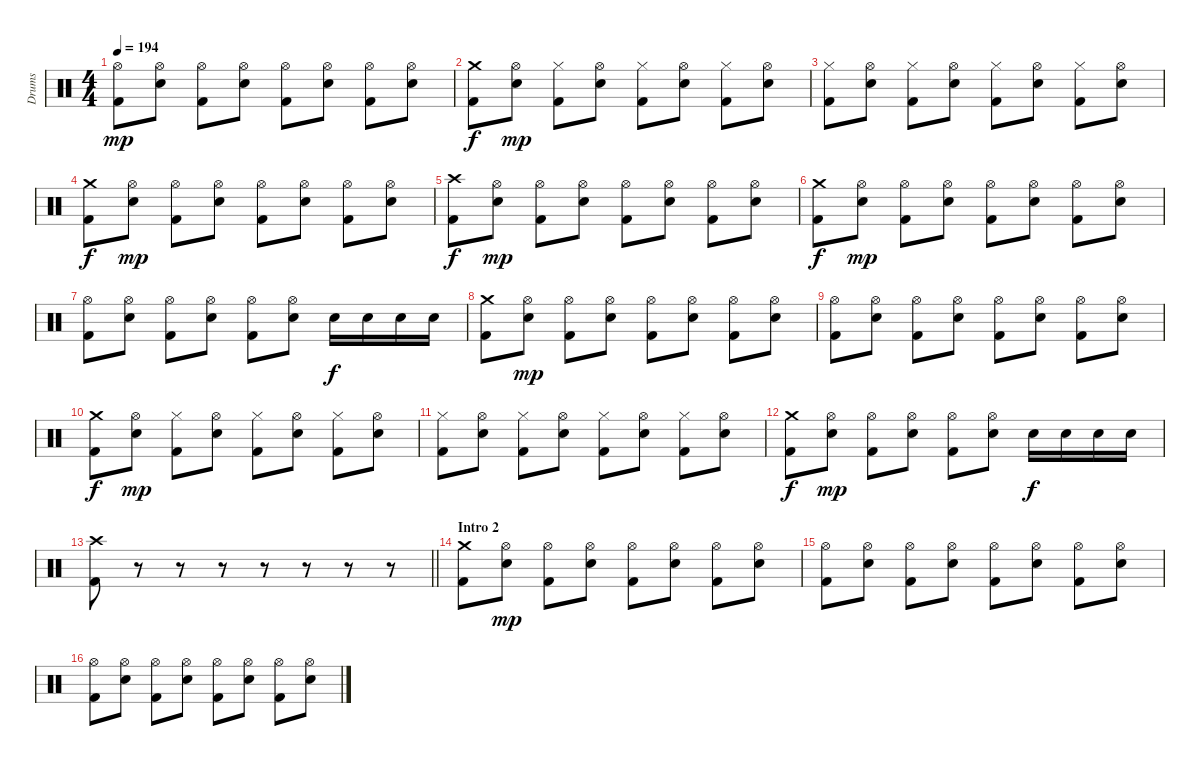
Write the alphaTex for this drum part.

\track ("Drums" "Drums") {instrument percussion}
\staff {score}
\articulation defaults
\ts (4 4)
\tempo 194
\clef neutral
\ks c
("Hi-Hat (open)" "Kick (hit) 2").8{dy mp} ("Hi-Hat (open)" "Snare (hit) 2").8 ("Hi-Hat (open)" "Kick (hit) 2").8 ("Hi-Hat (open)" "Snare (hit) 2").8 ("Hi-Hat (open)" "Kick (hit) 2").8 ("Hi-Hat (open)" "Snare (hit) 2").8 ("Hi-Hat (open)" "Kick (hit) 2").8 ("Hi-Hat (open)" "Snare (hit) 2").8 |
("Crash medium (hit)" "Kick (hit) 2").8{dy f} ("Hi-Hat (open)" "Snare (hit) 2").8{dy mp} ("Hi-Hat (closed)" "Kick (hit) 2").8 ("Hi-Hat (open)" "Snare (hit) 2").8 ("Hi-Hat (closed)" "Kick (hit) 2").8 ("Hi-Hat (open)" "Snare (hit) 2").8 ("Hi-Hat (closed)" "Kick (hit) 2").8 ("Hi-Hat (open)" "Snare (hit) 2").8 |
("Hi-Hat (closed)" "Kick (hit) 2").8 ("Hi-Hat (open)" "Snare (hit) 2").8 ("Hi-Hat (closed)" "Kick (hit) 2").8 ("Hi-Hat (open)" "Snare (hit) 2").8 ("Hi-Hat (closed)" "Kick (hit) 2").8 ("Hi-Hat (open)" "Snare (hit) 2").8 ("Hi-Hat (closed)" "Kick (hit) 2").8 ("Hi-Hat (open)" "Snare (hit) 2").8 |
("Crash medium (hit)" "Kick (hit) 2").8{dy f} ("Hi-Hat (open)" "Snare (hit) 2").8{dy mp} ("Hi-Hat (open)" "Kick (hit) 2").8 ("Hi-Hat (open)" "Snare (hit) 2").8 ("Hi-Hat (open)" "Kick (hit) 2").8 ("Hi-Hat (open)" "Snare (hit) 2").8 ("Hi-Hat (open)" "Kick (hit) 2").8 ("Hi-Hat (open)" "Snare (hit) 2").8 |
("Crash high (hit)" "Kick (hit) 2").8{dy f} ("Hi-Hat (open)" "Snare (hit) 2").8{dy mp} ("Hi-Hat (open)" "Kick (hit) 2").8 ("Hi-Hat (open)" "Snare (hit) 2").8 ("Hi-Hat (open)" "Kick (hit) 2").8 ("Hi-Hat (open)" "Snare (hit) 2").8 ("Hi-Hat (open)" "Kick (hit) 2").8 ("Hi-Hat (open)" "Snare (hit) 2").8 |
("Crash medium (hit)" "Kick (hit) 2").8{dy f} ("Hi-Hat (open)" "Snare (hit) 2").8{dy mp} ("Hi-Hat (open)" "Kick (hit) 2").8 ("Hi-Hat (open)" "Snare (hit) 2").8 ("Hi-Hat (open)" "Kick (hit) 2").8 ("Hi-Hat (open)" "Snare (hit) 2").8 ("Hi-Hat (open)" "Kick (hit) 2").8 ("Hi-Hat (open)" "Snare (hit) 2").8 |
("Hi-Hat (open)" "Kick (hit) 2").8 ("Hi-Hat (open)" "Snare (hit) 2").8 ("Hi-Hat (open)" "Kick (hit) 2").8 ("Hi-Hat (open)" "Snare (hit) 2").8 ("Hi-Hat (open)" "Kick (hit) 2").8 ("Hi-Hat (open)" "Snare (hit) 2").8 "Snare (hit) 2".16{dy f} "Snare (hit) 2".16 "Snare (hit) 2".16 "Snare (hit) 2".16 |
("Crash medium (hit)" "Kick (hit) 2").8 ("Hi-Hat (open)" "Snare (hit) 2").8{dy mp} ("Hi-Hat (open)" "Kick (hit) 2").8 ("Hi-Hat (open)" "Snare (hit) 2").8 ("Hi-Hat (open)" "Kick (hit) 2").8 ("Hi-Hat (open)" "Snare (hit) 2").8 ("Hi-Hat (open)" "Kick (hit) 2").8 ("Hi-Hat (open)" "Snare (hit) 2").8 |
("Hi-Hat (open)" "Kick (hit) 2").8 ("Hi-Hat (open)" "Snare (hit) 2").8 ("Hi-Hat (open)" "Kick (hit) 2").8 ("Hi-Hat (open)" "Snare (hit) 2").8 ("Hi-Hat (open)" "Kick (hit) 2").8 ("Hi-Hat (open)" "Snare (hit) 2").8 ("Hi-Hat (open)" "Kick (hit) 2").8 ("Hi-Hat (open)" "Snare (hit) 2").8 |
("Crash medium (hit)" "Kick (hit) 2").8{dy f} ("Hi-Hat (open)" "Snare (hit) 2").8{dy mp} ("Hi-Hat (closed)" "Kick (hit) 2").8 ("Hi-Hat (open)" "Snare (hit) 2").8 ("Hi-Hat (closed)" "Kick (hit) 2").8 ("Hi-Hat (open)" "Snare (hit) 2").8 ("Hi-Hat (closed)" "Kick (hit) 2").8 ("Hi-Hat (open)" "Snare (hit) 2").8 |
("Hi-Hat (closed)" "Kick (hit) 2").8 ("Hi-Hat (open)" "Snare (hit) 2").8 ("Hi-Hat (closed)" "Kick (hit) 2").8 ("Hi-Hat (open)" "Snare (hit) 2").8 ("Hi-Hat (closed)" "Kick (hit) 2").8 ("Hi-Hat (open)" "Snare (hit) 2").8 ("Hi-Hat (closed)" "Kick (hit) 2").8 ("Hi-Hat (open)" "Snare (hit) 2").8 |
("Crash medium (hit)" "Kick (hit) 2").8{dy f} ("Hi-Hat (open)" "Snare (hit) 2").8{dy mp} ("Hi-Hat (open)" "Kick (hit) 2").8 ("Hi-Hat (open)" "Snare (hit) 2").8 ("Hi-Hat (open)" "Kick (hit) 2").8 ("Hi-Hat (open)" "Snare (hit) 2").8 "Snare (hit) 2".16{dy f} "Snare (hit) 2".16 "Snare (hit) 2".16 "Snare (hit) 2".16 |
\barLineRight lightlight
("Crash high (hit)" "Kick (hit) 2").8 r.8 r.8 r.8 r.8 r.8 r.8 r.8 |
\section ("" "Intro 2")
("Crash medium (hit)" "Kick (hit) 2").8 ("Hi-Hat (open)" "Snare (hit) 2").8{dy mp} ("Hi-Hat (open)" "Kick (hit) 2").8 ("Hi-Hat (open)" "Snare (hit) 2").8 ("Hi-Hat (open)" "Kick (hit) 2").8 ("Hi-Hat (open)" "Snare (hit) 2").8 ("Hi-Hat (open)" "Kick (hit) 2").8 ("Hi-Hat (open)" "Snare (hit) 2").8 |
("Hi-Hat (open)" "Kick (hit) 2").8 ("Hi-Hat (open)" "Snare (hit) 2").8 ("Hi-Hat (open)" "Kick (hit) 2").8 ("Hi-Hat (open)" "Snare (hit) 2").8 ("Hi-Hat (open)" "Kick (hit) 2").8 ("Hi-Hat (open)" "Snare (hit) 2").8 ("Hi-Hat (open)" "Kick (hit) 2").8 ("Hi-Hat (open)" "Snare (hit) 2").8 |
("Hi-Hat (open)" "Kick (hit) 2").8 ("Hi-Hat (open)" "Snare (hit) 2").8 ("Hi-Hat (open)" "Kick (hit) 2").8 ("Hi-Hat (open)" "Snare (hit) 2").8 ("Hi-Hat (open)" "Kick (hit) 2").8 ("Hi-Hat (open)" "Snare (hit) 2").8 ("Hi-Hat (open)" "Kick (hit) 2").8 ("Hi-Hat (open)" "Snare (hit) 2").8
